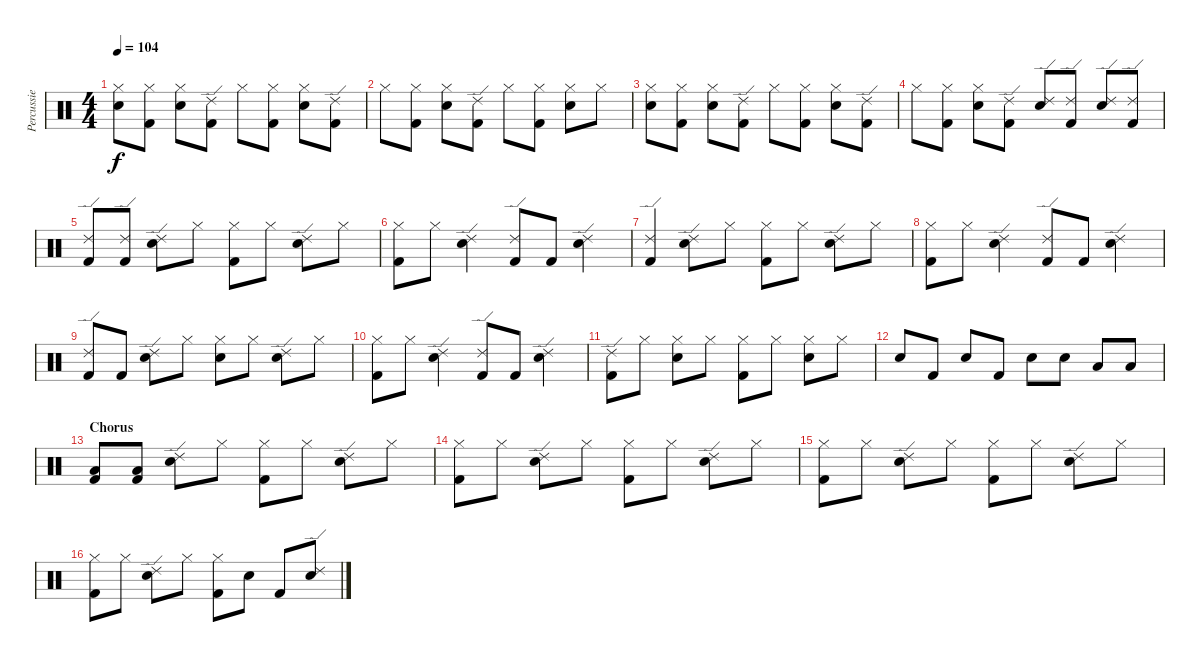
\track ("Percussie" "Percussie") {instrument percussion}
\staff {score}
\articulation defaults
\ts (4 4)
\tempo 104
\clef neutral
\ks c
("Hi-Hat (closed)" "Snare (hit) 2").8{dy f} ("Hi-Hat (closed)" "Kick (hit) 2").8 ("Hi-Hat (closed)" "Snare (hit) 2").8 ("Kick (hit) 2" "Ride (edge) 2").8 "Hi-Hat (closed)".8 ("Hi-Hat (closed)" "Kick (hit) 2").8 ("Hi-Hat (closed)" "Snare (hit) 2").8 ("Kick (hit) 2" "Ride (edge) 2").8 |
"Hi-Hat (closed)".8 ("Hi-Hat (closed)" "Kick (hit) 2").8 ("Hi-Hat (closed)" "Snare (hit) 2").8 ("Kick (hit) 2" "Ride (edge) 2").8 "Hi-Hat (closed)".8 ("Hi-Hat (closed)" "Kick (hit) 2").8 ("Hi-Hat (closed)" "Snare (hit) 2").8 "Hi-Hat (closed)".8 |
("Hi-Hat (closed)" "Snare (hit) 2").8 ("Hi-Hat (closed)" "Kick (hit) 2").8 ("Hi-Hat (closed)" "Snare (hit) 2").8 ("Kick (hit) 2" "Ride (edge) 2").8 "Hi-Hat (closed)".8 ("Hi-Hat (closed)" "Kick (hit) 2").8 ("Hi-Hat (closed)" "Snare (hit) 2").8 ("Kick (hit) 2" "Ride (edge) 2").8 |
"Hi-Hat (closed)".8 ("Hi-Hat (closed)" "Kick (hit) 2").8 ("Hi-Hat (closed)" "Snare (hit) 2").8 ("Kick (hit) 2" "Ride (edge) 2").8 ("Snare (hit) 2" "Ride (edge) 2").8 ("Kick (hit) 2" "Ride (edge) 2").8 ("Snare (hit) 2" "Ride (edge) 2").8 ("Kick (hit) 2" "Ride (edge) 2").8 |
("Kick (hit) 2" "Ride (edge) 2").8 ("Kick (hit) 2" "Ride (edge) 2").8 ("Snare (hit) 2" "Ride (edge) 2").8 "Hi-Hat (closed)".8 ("Hi-Hat (closed)" "Kick (hit) 2").8 "Hi-Hat (closed)".8 ("Snare (hit) 2" "Ride (edge) 2").8 "Hi-Hat (closed)".8 |
("Hi-Hat (closed)" "Kick (hit) 2").8 "Hi-Hat (closed)".8 ("Snare (hit) 2" "Ride (edge) 2").4 ("Kick (hit) 2" "Ride (edge) 2").8 "Kick (hit) 2".8 ("Snare (hit) 2" "Ride (edge) 2").4 |
("Kick (hit) 2" "Ride (edge) 2").4 ("Snare (hit) 2" "Ride (edge) 2").8 "Hi-Hat (closed)".8 ("Hi-Hat (closed)" "Kick (hit) 2").8 "Hi-Hat (closed)".8 ("Snare (hit) 2" "Ride (edge) 2").8 "Hi-Hat (closed)".8 |
("Hi-Hat (closed)" "Kick (hit) 2").8 "Hi-Hat (closed)".8 ("Snare (hit) 2" "Ride (edge) 2").4 ("Kick (hit) 2" "Ride (edge) 2").8 "Kick (hit) 2".8 ("Snare (hit) 2" "Ride (edge) 2").4 |
("Kick (hit) 2" "Ride (edge) 2").8 "Kick (hit) 2".8 ("Snare (hit) 2" "Ride (edge) 2").8 "Hi-Hat (closed)".8 ("Hi-Hat (closed)" "Snare (hit) 2").8 "Hi-Hat (closed)".8 ("Snare (hit) 2" "Ride (edge) 2").8 "Hi-Hat (closed)".8 |
("Hi-Hat (closed)" "Kick (hit) 2").8 "Hi-Hat (closed)".8 ("Snare (hit) 2" "Ride (edge) 2").4 ("Kick (hit) 2" "Ride (edge) 2").8 "Kick (hit) 2".8 ("Snare (hit) 2" "Ride (edge) 2").4 |
("Kick (hit) 2" "Ride (edge) 2").8 "Hi-Hat (closed)".8 ("Hi-Hat (closed)" "Snare (hit) 2").8 "Hi-Hat (closed)".8 ("Hi-Hat (closed)" "Kick (hit) 2").8 "Hi-Hat (closed)".8 ("Hi-Hat (closed)" "Snare (hit) 2").8 "Hi-Hat (closed)".8 |
"Snare (hit) 2".8 "Kick (hit) 2".8 "Snare (hit) 2".8 "Kick (hit) 2".8 "Snare (hit) 2".8 "Snare (hit) 2".8 "Low Tom (hit)".8 "Low Tom (hit)".8 |
\section ("" "Chorus")
("Kick (hit) 2" "Low Floor Tom (hit)").8 ("Kick (hit) 2" "Low Floor Tom (hit)").8 ("Snare (hit) 2" "Ride (edge) 2").8 "Hi-Hat (closed)".8 ("Hi-Hat (closed)" "Kick (hit) 2").8 "Hi-Hat (closed)".8 ("Snare (hit) 2" "Ride (edge) 2").8 "Hi-Hat (closed)".8 |
("Hi-Hat (closed)" "Kick (hit) 2").8 "Hi-Hat (closed)".8 ("Snare (hit) 2" "Ride (edge) 2").8 "Hi-Hat (closed)".8 ("Hi-Hat (closed)" "Kick (hit) 2").8 "Hi-Hat (closed)".8 ("Snare (hit) 2" "Ride (edge) 2").8 "Hi-Hat (closed)".8 |
("Hi-Hat (closed)" "Kick (hit) 2").8 "Hi-Hat (closed)".8 ("Snare (hit) 2" "Ride (edge) 2").8 "Hi-Hat (closed)".8 ("Hi-Hat (closed)" "Kick (hit) 2").8 "Hi-Hat (closed)".8 ("Snare (hit) 2" "Ride (edge) 2").8 "Hi-Hat (closed)".8 |
("Hi-Hat (closed)" "Kick (hit) 2").8 "Hi-Hat (closed)".8 ("Snare (hit) 2" "Ride (edge) 2").8 "Hi-Hat (closed)".8 ("Hi-Hat (closed)" "Kick (hit) 2").8 "Snare (hit) 2".8 "Kick (hit) 2".8 ("Snare (hit) 2" "Ride (edge) 2").8
